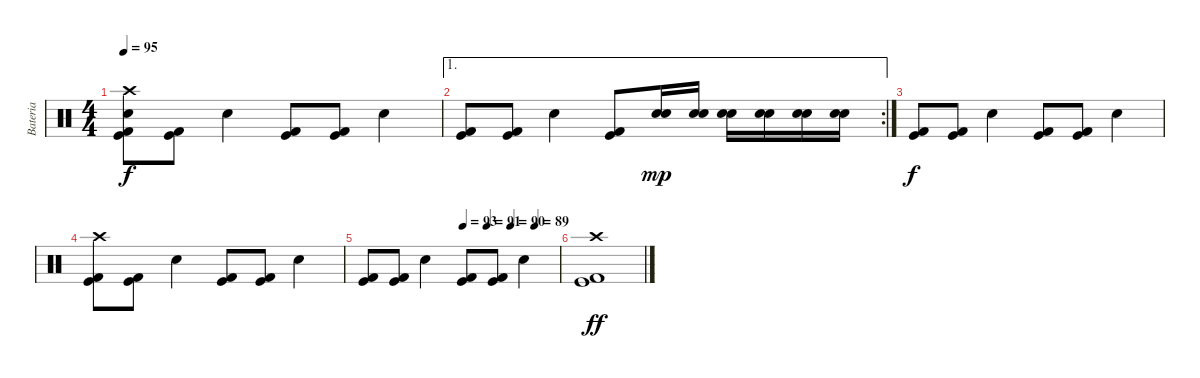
\track ("Bateria" "Bateria") {instrument percussion}
\staff {score}
\articulation defaults
\ts (4 4)
\tempo 95
\clef neutral
\ks c
("Crash high (hit)" "Electric Snare (hit)" "Kick (hit)" "Kick (hit) 2").8{dy f} ("Kick (hit)" "Kick (hit) 2").8 "Electric Snare (hit)".4 ("Kick (hit)" "Kick (hit) 2").8 ("Kick (hit)" "Kick (hit) 2").8 "Electric Snare (hit)".4 |
\ae 1
\rc 2
("Kick (hit)" "Kick (hit) 2").8 ("Kick (hit)" "Kick (hit) 2").8 "Electric Snare (hit)".4 ("Kick (hit)" "Kick (hit) 2").8 ("Snare (hit) 2" "Electric Snare (hit)").16{dy mp} ("Snare (hit) 2" "Electric Snare (hit)").16 ("Snare (hit) 2" "Electric Snare (hit)").16 ("Snare (hit) 2" "Electric Snare (hit)").16 ("Snare (hit) 2" "Electric Snare (hit)").16 ("Snare (hit) 2" "Electric Snare (hit)").16 |
("Kick (hit)" "Kick (hit) 2").8{dy f} ("Kick (hit)" "Kick (hit) 2").8 "Electric Snare (hit)".4 ("Kick (hit)" "Kick (hit) 2").8 ("Kick (hit)" "Kick (hit) 2").8 "Electric Snare (hit)".4 |
("Crash high (hit)" "Kick (hit)" "Kick (hit) 2").8 ("Kick (hit)" "Kick (hit) 2").8 "Electric Snare (hit)".4 ("Kick (hit)" "Kick (hit) 2").8 ("Kick (hit)" "Kick (hit) 2").8 "Electric Snare (hit)".4 |
\tempo (93 0.5)
\tempo (91 0.625)
\tempo (90 0.75)
\tempo (89 0.875)
("Kick (hit)" "Kick (hit) 2").8 ("Kick (hit)" "Kick (hit) 2").8 "Electric Snare (hit)".4 ("Kick (hit)" "Kick (hit) 2").8 ("Kick (hit)" "Kick (hit) 2").8 "Electric Snare (hit)".4 |
("Crash high (hit)" "Kick (hit)" "Kick (hit) 2").1{dy ff}
